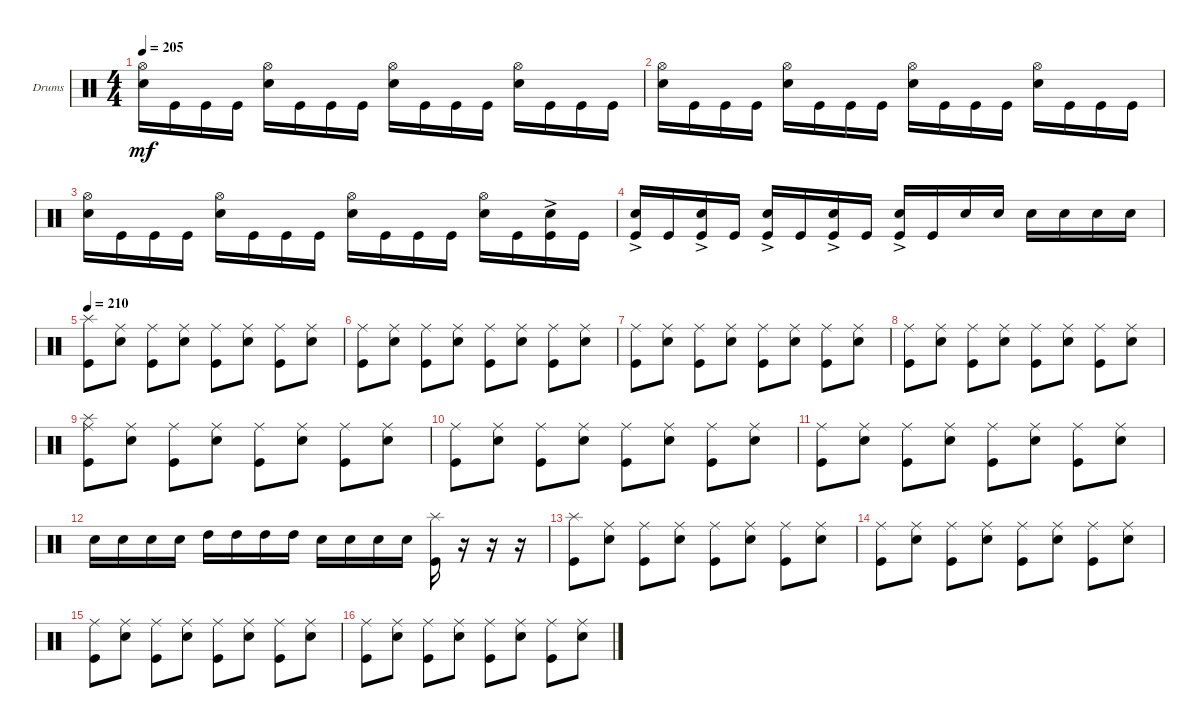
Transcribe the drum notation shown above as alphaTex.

\bracketExtendMode groupsimilarinstruments
\firstSystemTrackNameOrientation horizontal
\otherSystemsTrackNameOrientation horizontal
\track ("Drumkit" "Drums") {instrument percussion}
\staff {score}
\articulation defaults
\ts (4 4)
\tempo 205
\clef neutral
\ks c
("Snare (hit) 2" "Hi-Hat (open)").16{dy mf} "Kick (hit)".16 "Kick (hit)".16 "Kick (hit)".16 ("Snare (hit) 2" "Hi-Hat (open)").16 "Kick (hit)".16 "Kick (hit)".16 "Kick (hit)".16 ("Snare (hit) 2" "Hi-Hat (open)").16 "Kick (hit)".16 "Kick (hit)".16 "Kick (hit)".16 ("Snare (hit) 2" "Hi-Hat (open)").16 "Kick (hit)".16 "Kick (hit)".16 "Kick (hit)".16 |
("Snare (hit) 2" "Hi-Hat (open)").16 "Kick (hit)".16 "Kick (hit)".16 "Kick (hit)".16 ("Snare (hit) 2" "Hi-Hat (open)").16 "Kick (hit)".16 "Kick (hit)".16 "Kick (hit)".16 ("Snare (hit) 2" "Hi-Hat (open)").16 "Kick (hit)".16 "Kick (hit)".16 "Kick (hit)".16 ("Snare (hit) 2" "Hi-Hat (open)").16 "Kick (hit)".16 "Kick (hit)".16 "Kick (hit)".16 |
("Snare (hit) 2" "Hi-Hat (open)").16 "Kick (hit)".16 "Kick (hit)".16 "Kick (hit)".16 ("Snare (hit) 2" "Hi-Hat (open)").16 "Kick (hit)".16 "Kick (hit)".16 "Kick (hit)".16 ("Snare (hit) 2" "Hi-Hat (open)").16 "Kick (hit)".16 "Kick (hit)".16 "Kick (hit)".16 ("Snare (hit) 2" "Hi-Hat (open)").16 "Kick (hit)".16 ("Snare (hit) 2"{ac} "Kick (hit)").16 "Kick (hit)".16 |
("Snare (hit) 2"{ac} "Kick (hit)").16 "Kick (hit)".16 ("Snare (hit) 2"{ac} "Kick (hit)").16 "Kick (hit)".16 ("Snare (hit) 2"{ac} "Kick (hit)").16 "Kick (hit)".16 ("Snare (hit) 2"{ac} "Kick (hit)").16 "Kick (hit)".16 ("Snare (hit) 2"{ac} "Kick (hit)").16 "Kick (hit)".16 "Snare (hit) 2".16 "Snare (hit) 2".16 "Snare (hit) 2".16 "Snare (hit) 2".16 "Snare (hit) 2".16 "Snare (hit) 2".16 |
\tempo 210
("Kick (hit)" "Splash (hit)").8 ("Snare (hit) 2" "Ride (middle)").8 ("Kick (hit)" "Ride (middle)").8 ("Snare (hit) 2" "Ride (middle)").8 ("Kick (hit)" "Ride (middle)").8 ("Snare (hit) 2" "Ride (middle)").8 ("Kick (hit)" "Ride (middle)").8 ("Snare (hit) 2" "Ride (middle)").8 |
("Kick (hit)" "Ride (middle)").8 ("Snare (hit) 2" "Ride (middle)").8 ("Kick (hit)" "Ride (middle)").8 ("Snare (hit) 2" "Ride (middle)").8 ("Kick (hit)" "Ride (middle)").8 ("Snare (hit) 2" "Ride (middle)").8 ("Kick (hit)" "Ride (middle)").8 ("Snare (hit) 2" "Ride (middle)").8 |
("Kick (hit)" "Ride (middle)").8 ("Snare (hit) 2" "Ride (middle)").8 ("Kick (hit)" "Ride (middle)").8 ("Snare (hit) 2" "Ride (middle)").8 ("Kick (hit)" "Ride (middle)").8 ("Snare (hit) 2" "Ride (middle)").8 ("Kick (hit)" "Ride (middle)").8 ("Snare (hit) 2" "Ride (middle)").8 |
("Kick (hit)" "Ride (middle)").8 ("Snare (hit) 2" "Ride (middle)").8 ("Kick (hit)" "Ride (middle)").8 ("Snare (hit) 2" "Ride (middle)").8 ("Kick (hit)" "Ride (middle)").8 ("Snare (hit) 2" "Ride (middle)").8 ("Kick (hit)" "Ride (middle)").8 ("Snare (hit) 2" "Ride (middle)").8 |
("Kick (hit)" "Ride (middle)" "Splash (hit)").8 ("Snare (hit) 2" "Ride (middle)").8 ("Kick (hit)" "Ride (middle)").8 ("Snare (hit) 2" "Ride (middle)").8 ("Kick (hit)" "Ride (middle)").8 ("Snare (hit) 2" "Ride (middle)").8 ("Kick (hit)" "Ride (middle)").8 ("Snare (hit) 2" "Ride (middle)").8 |
("Kick (hit)" "Ride (middle)").8 ("Snare (hit) 2" "Ride (middle)").8 ("Kick (hit)" "Ride (middle)").8 ("Snare (hit) 2" "Ride (middle)").8 ("Kick (hit)" "Ride (middle)").8 ("Snare (hit) 2" "Ride (middle)").8 ("Kick (hit)" "Ride (middle)").8 ("Snare (hit) 2" "Ride (middle)").8 |
("Kick (hit)" "Ride (middle)").8 ("Snare (hit) 2" "Ride (middle)").8 ("Kick (hit)" "Ride (middle)").8 ("Snare (hit) 2" "Ride (middle)").8 ("Kick (hit)" "Ride (middle)").8 ("Snare (hit) 2" "Ride (middle)").8 ("Kick (hit)" "Ride (middle)").8 ("Snare (hit) 2" "Ride (middle)").8 |
"Snare (hit) 2".16 "Snare (hit) 2".16 "Snare (hit) 2".16 "Snare (hit) 2".16 "High Tom (hit)".16 "High Tom (hit)".16 "High Tom (hit)".16 "High Tom (hit)".16 "Snare (hit) 2".16 "Snare (hit) 2".16 "Snare (hit) 2".16 "Snare (hit) 2".16 ("Kick (hit)" "Splash (hit)").16 r.16 r.16 r.16 |
("Kick (hit)" "Splash (hit)").8 ("Snare (hit) 2" "Ride (middle)").8 ("Kick (hit)" "Ride (middle)").8 ("Snare (hit) 2" "Ride (middle)").8 ("Kick (hit)" "Ride (middle)").8 ("Snare (hit) 2" "Ride (middle)").8 ("Kick (hit)" "Ride (middle)").8 ("Snare (hit) 2" "Ride (middle)").8 |
("Kick (hit)" "Ride (middle)").8 ("Snare (hit) 2" "Ride (middle)").8 ("Kick (hit)" "Ride (middle)").8 ("Snare (hit) 2" "Ride (middle)").8 ("Kick (hit)" "Ride (middle)").8 ("Snare (hit) 2" "Ride (middle)").8 ("Kick (hit)" "Ride (middle)").8 ("Snare (hit) 2" "Ride (middle)").8 |
("Kick (hit)" "Ride (middle)").8 ("Snare (hit) 2" "Ride (middle)").8 ("Kick (hit)" "Ride (middle)").8 ("Snare (hit) 2" "Ride (middle)").8 ("Kick (hit)" "Ride (middle)").8 ("Snare (hit) 2" "Ride (middle)").8 ("Kick (hit)" "Ride (middle)").8 ("Snare (hit) 2" "Ride (middle)").8 |
("Kick (hit)" "Ride (middle)").8 ("Snare (hit) 2" "Ride (middle)").8 ("Kick (hit)" "Ride (middle)").8 ("Snare (hit) 2" "Ride (middle)").8 ("Kick (hit)" "Ride (middle)").8 ("Snare (hit) 2" "Ride (middle)").8 ("Kick (hit)" "Ride (middle)").8 ("Snare (hit) 2" "Ride (middle)").8
